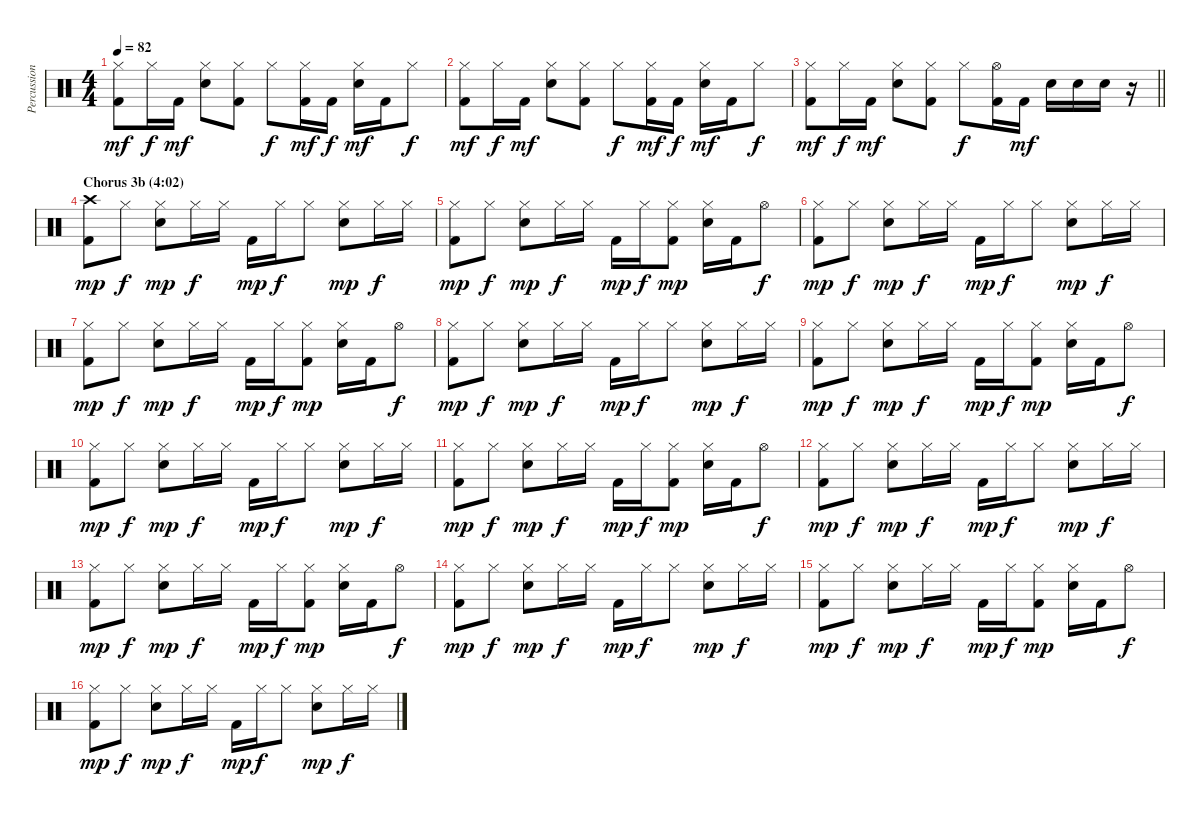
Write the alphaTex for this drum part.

\track ("Percussion" "Percussion") {instrument percussion}
\staff {score}
\articulation defaults
\ts (4 4)
\tempo 82
\clef neutral
\ks c
("Hi-Hat (closed)" "Kick (hit) 2").8{dy mf} "Hi-Hat (closed)".16{dy f} "Kick (hit) 2".16{dy mf} ("Hi-Hat (closed)" "Electric Snare (hit)").8 ("Hi-Hat (closed)" "Kick (hit) 2").8 "Hi-Hat (closed)".8{dy f} ("Hi-Hat (closed)" "Kick (hit) 2").16{dy mf} "Kick (hit) 2".16{dy f} ("Hi-Hat (closed)" "Electric Snare (hit)").16{dy mf} "Kick (hit) 2".16 "Hi-Hat (closed)".8{dy f} |
("Hi-Hat (closed)" "Kick (hit) 2").8{dy mf} "Hi-Hat (closed)".16{dy f} "Kick (hit) 2".16{dy mf} ("Hi-Hat (closed)" "Electric Snare (hit)").8 ("Hi-Hat (closed)" "Kick (hit) 2").8 "Hi-Hat (closed)".8{dy f} ("Hi-Hat (closed)" "Kick (hit) 2").16{dy mf} "Kick (hit) 2".16{dy f} ("Hi-Hat (closed)" "Electric Snare (hit)").16{dy mf} "Kick (hit) 2".16 "Hi-Hat (closed)".8{dy f} |
\barLineRight lightlight
("Hi-Hat (closed)" "Kick (hit) 2").8{dy mf} "Hi-Hat (closed)".16{dy f} "Kick (hit) 2".16{dy mf} ("Hi-Hat (closed)" "Electric Snare (hit)").8 ("Hi-Hat (closed)" "Kick (hit) 2").8 "Hi-Hat (closed)".8{dy f} ("Hi-Hat (open)" "Kick (hit) 2").16 "Kick (hit) 2".16{dy mf} "Electric Snare (hit)".16 "Electric Snare (hit)".16 "Snare (hit) 2".16 r.16 |
\section ("" "Chorus 3b (4:02)")
("Crash high (hit)" "Kick (hit) 2").8{dy mp} "Hi-Hat (closed)".8{dy f} ("Hi-Hat (closed)" "Electric Snare (hit)").8{dy mp} "Hi-Hat (closed)".16{dy f} "Hi-Hat (closed)".16 "Kick (hit) 2".16{dy mp} "Hi-Hat (closed)".16{dy f} "Hi-Hat (closed)".8 ("Hi-Hat (closed)" "Electric Snare (hit)").8{dy mp} "Hi-Hat (closed)".16{dy f} "Hi-Hat (closed)".16 |
("Hi-Hat (closed)" "Kick (hit) 2").8{dy mp} "Hi-Hat (closed)".8{dy f} ("Hi-Hat (closed)" "Electric Snare (hit)").8{dy mp} "Hi-Hat (closed)".16{dy f} "Hi-Hat (closed)".16 "Kick (hit) 2".16{dy mp} "Hi-Hat (closed)".16{dy f} ("Hi-Hat (closed)" "Kick (hit) 2").8{dy mp} ("Hi-Hat (closed)" "Electric Snare (hit)").16 "Kick (hit) 2".16 "Hi-Hat (open)".8{dy f} |
("Hi-Hat (closed)" "Kick (hit) 2").8{dy mp} "Hi-Hat (closed)".8{dy f} ("Hi-Hat (closed)" "Electric Snare (hit)").8{dy mp} "Hi-Hat (closed)".16{dy f} "Hi-Hat (closed)".16 "Kick (hit) 2".16{dy mp} "Hi-Hat (closed)".16{dy f} "Hi-Hat (closed)".8 ("Hi-Hat (closed)" "Electric Snare (hit)").8{dy mp} "Hi-Hat (closed)".16{dy f} "Hi-Hat (closed)".16 |
("Hi-Hat (closed)" "Kick (hit) 2").8{dy mp} "Hi-Hat (closed)".8{dy f} ("Hi-Hat (closed)" "Electric Snare (hit)").8{dy mp} "Hi-Hat (closed)".16{dy f} "Hi-Hat (closed)".16 "Kick (hit) 2".16{dy mp} "Hi-Hat (closed)".16{dy f} ("Hi-Hat (closed)" "Kick (hit) 2").8{dy mp} ("Hi-Hat (closed)" "Electric Snare (hit)").16 "Kick (hit) 2".16 "Hi-Hat (open)".8{dy f} |
("Hi-Hat (closed)" "Kick (hit) 2").8{dy mp} "Hi-Hat (closed)".8{dy f} ("Hi-Hat (closed)" "Electric Snare (hit)").8{dy mp} "Hi-Hat (closed)".16{dy f} "Hi-Hat (closed)".16 "Kick (hit) 2".16{dy mp} "Hi-Hat (closed)".16{dy f} "Hi-Hat (closed)".8 ("Hi-Hat (closed)" "Electric Snare (hit)").8{dy mp} "Hi-Hat (closed)".16{dy f} "Hi-Hat (closed)".16 |
("Hi-Hat (closed)" "Kick (hit) 2").8{dy mp} "Hi-Hat (closed)".8{dy f} ("Hi-Hat (closed)" "Electric Snare (hit)").8{dy mp} "Hi-Hat (closed)".16{dy f} "Hi-Hat (closed)".16 "Kick (hit) 2".16{dy mp} "Hi-Hat (closed)".16{dy f} ("Hi-Hat (closed)" "Kick (hit) 2").8{dy mp} ("Hi-Hat (closed)" "Electric Snare (hit)").16 "Kick (hit) 2".16 "Hi-Hat (open)".8{dy f} |
("Hi-Hat (closed)" "Kick (hit) 2").8{dy mp} "Hi-Hat (closed)".8{dy f} ("Hi-Hat (closed)" "Electric Snare (hit)").8{dy mp} "Hi-Hat (closed)".16{dy f} "Hi-Hat (closed)".16 "Kick (hit) 2".16{dy mp} "Hi-Hat (closed)".16{dy f} "Hi-Hat (closed)".8 ("Hi-Hat (closed)" "Electric Snare (hit)").8{dy mp} "Hi-Hat (closed)".16{dy f} "Hi-Hat (closed)".16 |
("Hi-Hat (closed)" "Kick (hit) 2").8{dy mp} "Hi-Hat (closed)".8{dy f} ("Hi-Hat (closed)" "Electric Snare (hit)").8{dy mp} "Hi-Hat (closed)".16{dy f} "Hi-Hat (closed)".16 "Kick (hit) 2".16{dy mp} "Hi-Hat (closed)".16{dy f} ("Hi-Hat (closed)" "Kick (hit) 2").8{dy mp} ("Hi-Hat (closed)" "Electric Snare (hit)").16 "Kick (hit) 2".16 "Hi-Hat (open)".8{dy f} |
("Hi-Hat (closed)" "Kick (hit) 2").8{dy mp} "Hi-Hat (closed)".8{dy f} ("Hi-Hat (closed)" "Electric Snare (hit)").8{dy mp} "Hi-Hat (closed)".16{dy f} "Hi-Hat (closed)".16 "Kick (hit) 2".16{dy mp} "Hi-Hat (closed)".16{dy f} "Hi-Hat (closed)".8 ("Hi-Hat (closed)" "Electric Snare (hit)").8{dy mp} "Hi-Hat (closed)".16{dy f} "Hi-Hat (closed)".16 |
("Hi-Hat (closed)" "Kick (hit) 2").8{dy mp} "Hi-Hat (closed)".8{dy f} ("Hi-Hat (closed)" "Electric Snare (hit)").8{dy mp} "Hi-Hat (closed)".16{dy f} "Hi-Hat (closed)".16 "Kick (hit) 2".16{dy mp} "Hi-Hat (closed)".16{dy f} ("Hi-Hat (closed)" "Kick (hit) 2").8{dy mp} ("Hi-Hat (closed)" "Electric Snare (hit)").16 "Kick (hit) 2".16 "Hi-Hat (open)".8{dy f} |
("Hi-Hat (closed)" "Kick (hit) 2").8{dy mp} "Hi-Hat (closed)".8{dy f} ("Hi-Hat (closed)" "Electric Snare (hit)").8{dy mp} "Hi-Hat (closed)".16{dy f} "Hi-Hat (closed)".16 "Kick (hit) 2".16{dy mp} "Hi-Hat (closed)".16{dy f} "Hi-Hat (closed)".8 ("Hi-Hat (closed)" "Electric Snare (hit)").8{dy mp} "Hi-Hat (closed)".16{dy f} "Hi-Hat (closed)".16 |
("Hi-Hat (closed)" "Kick (hit) 2").8{dy mp} "Hi-Hat (closed)".8{dy f} ("Hi-Hat (closed)" "Electric Snare (hit)").8{dy mp} "Hi-Hat (closed)".16{dy f} "Hi-Hat (closed)".16 "Kick (hit) 2".16{dy mp} "Hi-Hat (closed)".16{dy f} ("Hi-Hat (closed)" "Kick (hit) 2").8{dy mp} ("Hi-Hat (closed)" "Electric Snare (hit)").16 "Kick (hit) 2".16 "Hi-Hat (open)".8{dy f} |
("Hi-Hat (closed)" "Kick (hit) 2").8{dy mp} "Hi-Hat (closed)".8{dy f} ("Hi-Hat (closed)" "Electric Snare (hit)").8{dy mp} "Hi-Hat (closed)".16{dy f} "Hi-Hat (closed)".16 "Kick (hit) 2".16{dy mp} "Hi-Hat (closed)".16{dy f} "Hi-Hat (closed)".8 ("Hi-Hat (closed)" "Electric Snare (hit)").8{dy mp} "Hi-Hat (closed)".16{dy f} "Hi-Hat (closed)".16
